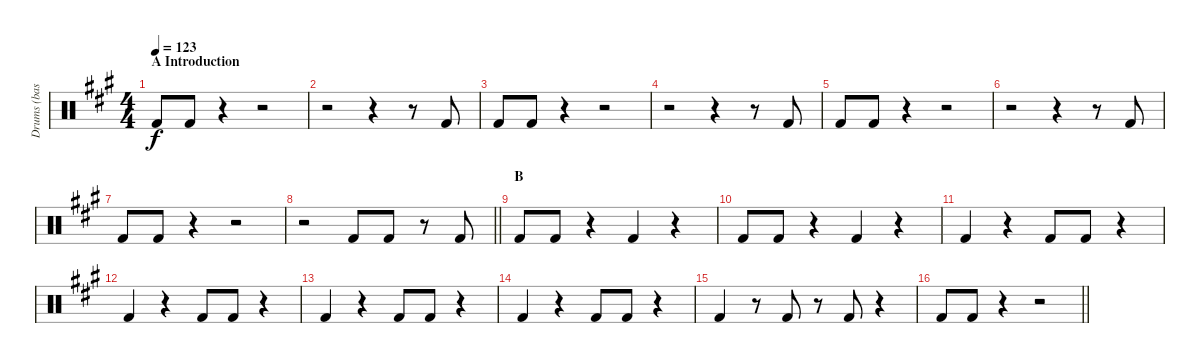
\track ("Drums (bass Drums)" "Drums (bas") {instrument percussion}
\staff {score}
\articulation defaults
\ts (4 4)
\section ("" "A Introduction")
\tempo 123
\clef neutral
\ks a "Kick (hit) 2".8{dy f} "Kick (hit) 2".8
r.4 r.2 |
r.2 r.4 r.8 "Kick (hit) 2".8 |
"Kick (hit) 2".8 "Kick (hit) 2".8 r.4 r.2 |
r.2 r.4 r.8 "Kick (hit) 2".8 |
"Kick (hit) 2".8 "Kick (hit) 2".8 r.4 r.2 |
r.2 r.4 r.8 "Kick (hit) 2".8 |
"Kick (hit) 2".8 "Kick (hit) 2".8 r.4 r.2 |
\barLineRight lightlight
r.2 "Kick (hit) 2".8 "Kick (hit) 2".8 r.8 "Kick (hit) 2".8 |
\section ("" "B")
"Kick (hit) 2".8 "Kick (hit) 2".8 r.4 "Kick (hit) 2".4 r.4 |
"Kick (hit) 2".8 "Kick (hit) 2".8 r.4 "Kick (hit) 2".4 r.4 |
"Kick (hit) 2".4 r.4 "Kick (hit) 2".8 "Kick (hit) 2".8 r.4 |
"Kick (hit) 2".4 r.4 "Kick (hit) 2".8 "Kick (hit) 2".8 r.4 |
"Kick (hit) 2".4 r.4 "Kick (hit) 2".8 "Kick (hit) 2".8 r.4 |
"Kick (hit) 2".4 r.4 "Kick (hit) 2".8 "Kick (hit) 2".8 r.4 |
"Kick (hit) 2".4 r.8 "Kick (hit) 2".8 r.8 "Kick (hit) 2".8 r.4 |
\barLineRight lightlight "Kick (hit) 2".8 "Kick (hit) 2".8
r.4 r.2
